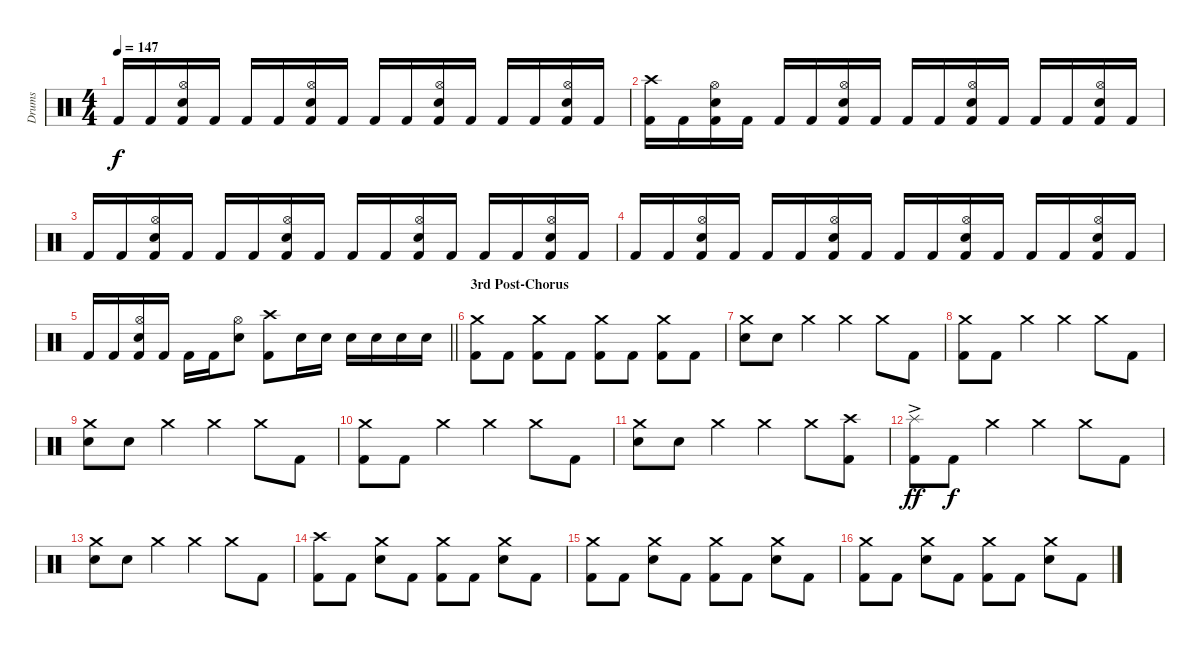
\track ("Drums" "Drums") {instrument percussion}
\staff {score}
\articulation defaults
\ts (4 4)
\tempo 147
\clef neutral
\ks c "Kick (hit) 2".16{dy f} "Kick (hit) 2".16
("Hi-Hat (open)" "Snare (hit) 2" "Kick (hit) 2").16 "Kick (hit) 2".16 "Kick (hit) 2".16 "Kick (hit) 2".16 ("Hi-Hat (open)" "Snare (hit) 2" "Kick (hit) 2").16 "Kick (hit) 2".16 "Kick (hit) 2".16 "Kick (hit) 2".16 ("Hi-Hat (open)" "Snare (hit) 2" "Kick (hit) 2").16 "Kick (hit) 2".16 "Kick (hit) 2".16 "Kick (hit) 2".16 ("Hi-Hat (open)" "Snare (hit) 2" "Kick (hit) 2").16 "Kick (hit) 2".16 |
("Crash high (hit)" "Kick (hit) 2").16 "Kick (hit) 2".16 ("Hi-Hat (open)" "Snare (hit) 2" "Kick (hit) 2").16 "Kick (hit) 2".16 "Kick (hit) 2".16 "Kick (hit) 2".16 ("Hi-Hat (open)" "Snare (hit) 2" "Kick (hit) 2").16 "Kick (hit) 2".16 "Kick (hit) 2".16 "Kick (hit) 2".16 ("Hi-Hat (open)" "Snare (hit) 2" "Kick (hit) 2").16 "Kick (hit) 2".16 "Kick (hit) 2".16 "Kick (hit) 2".16 ("Hi-Hat (open)" "Snare (hit) 2" "Kick (hit) 2").16 "Kick (hit) 2".16 |
"Kick (hit) 2".16 "Kick (hit) 2".16 ("Hi-Hat (open)" "Snare (hit) 2" "Kick (hit) 2").16 "Kick (hit) 2".16 "Kick (hit) 2".16 "Kick (hit) 2".16 ("Hi-Hat (open)" "Snare (hit) 2" "Kick (hit) 2").16 "Kick (hit) 2".16 "Kick (hit) 2".16 "Kick (hit) 2".16 ("Hi-Hat (open)" "Snare (hit) 2" "Kick (hit) 2").16 "Kick (hit) 2".16 "Kick (hit) 2".16 "Kick (hit) 2".16 ("Hi-Hat (open)" "Snare (hit) 2" "Kick (hit) 2").16 "Kick (hit) 2".16 |
"Kick (hit) 2".16 "Kick (hit) 2".16 ("Hi-Hat (open)" "Snare (hit) 2" "Kick (hit) 2").16 "Kick (hit) 2".16 "Kick (hit) 2".16 "Kick (hit) 2".16 ("Hi-Hat (open)" "Snare (hit) 2" "Kick (hit) 2").16 "Kick (hit) 2".16 "Kick (hit) 2".16 "Kick (hit) 2".16 ("Hi-Hat (open)" "Snare (hit) 2" "Kick (hit) 2").16 "Kick (hit) 2".16 "Kick (hit) 2".16 "Kick (hit) 2".16 ("Hi-Hat (open)" "Snare (hit) 2" "Kick (hit) 2").16 "Kick (hit) 2".16 |
\barLineRight lightlight "Kick (hit) 2".16 "Kick (hit) 2".16
("Hi-Hat (open)" "Snare (hit) 2" "Kick (hit) 2").16 "Kick (hit) 2".16 "Kick (hit) 2".16 "Kick (hit) 2".16 ("Hi-Hat (open)" "Snare (hit) 2").8 ("Crash high (hit)" "Kick (hit) 2").8 "Snare (hit) 2".16 "Snare (hit) 2".16 "Snare (hit) 2".16 "Snare (hit) 2".16 "Snare (hit) 2".16 "Snare (hit) 2".16 |
\section ("" "3rd Post-Chorus")
("Crash medium (hit)" "Kick (hit) 2").8 "Kick (hit) 2".8 ("Crash medium (hit)" "Kick (hit) 2").8 "Kick (hit) 2".8 ("Crash medium (hit)" "Kick (hit) 2").8 "Kick (hit) 2".8 ("Crash medium (hit)" "Kick (hit) 2").8 "Kick (hit) 2".8 |
("Crash medium (hit)" "Snare (hit) 2").8 "Snare (hit) 2".8 "Crash medium (hit)".4 "Crash medium (hit)".4 "Crash medium (hit)".8 "Kick (hit) 2".8 |
("Crash medium (hit)" "Kick (hit) 2").8 "Kick (hit) 2".8 "Crash medium (hit)".4 "Crash medium (hit)".4 "Crash medium (hit)".8 "Kick (hit) 2".8 |
("Crash medium (hit)" "Snare (hit) 2").8 "Snare (hit) 2".8 "Crash medium (hit)".4 "Crash medium (hit)".4 "Crash medium (hit)".8 "Kick (hit) 2".8 |
("Crash medium (hit)" "Kick (hit) 2").8 "Kick (hit) 2".8 "Crash medium (hit)".4 "Crash medium (hit)".4 "Crash medium (hit)".8 "Kick (hit) 2".8 |
("Crash medium (hit)" "Snare (hit) 2").8 "Snare (hit) 2".8 "Crash medium (hit)".4 "Crash medium (hit)".4 "Crash medium (hit)".8 ("Crash high (hit)" "Kick (hit) 2").8 |
("Splash (hit)"{ac} "Kick (hit) 2").8{dy ff} "Kick (hit) 2".8{dy f} "Crash medium (hit)".4 "Crash medium (hit)".4 "Crash medium (hit)".8 "Kick (hit) 2".8 |
("Crash medium (hit)" "Snare (hit) 2").8 "Snare (hit) 2".8 "Crash medium (hit)".4 "Crash medium (hit)".4 "Crash medium (hit)".8 "Kick (hit) 2".8 |
("Crash high (hit)" "Kick (hit) 2").8 "Kick (hit) 2".8 ("Crash medium (hit)" "Snare (hit) 2").8 "Kick (hit) 2".8 ("Crash medium (hit)" "Kick (hit) 2").8 "Kick (hit) 2".8 ("Crash medium (hit)" "Snare (hit) 2").8 "Kick (hit) 2".8 |
("Crash medium (hit)" "Kick (hit) 2").8 "Kick (hit) 2".8 ("Crash medium (hit)" "Snare (hit) 2").8 "Kick (hit) 2".8 ("Crash medium (hit)" "Kick (hit) 2").8 "Kick (hit) 2".8 ("Crash medium (hit)" "Snare (hit) 2").8 "Kick (hit) 2".8 |
("Crash medium (hit)" "Kick (hit) 2").8 "Kick (hit) 2".8 ("Crash medium (hit)" "Snare (hit) 2").8 "Kick (hit) 2".8 ("Crash medium (hit)" "Kick (hit) 2").8 "Kick (hit) 2".8 ("Crash medium (hit)" "Snare (hit) 2").8 "Kick (hit) 2".8
